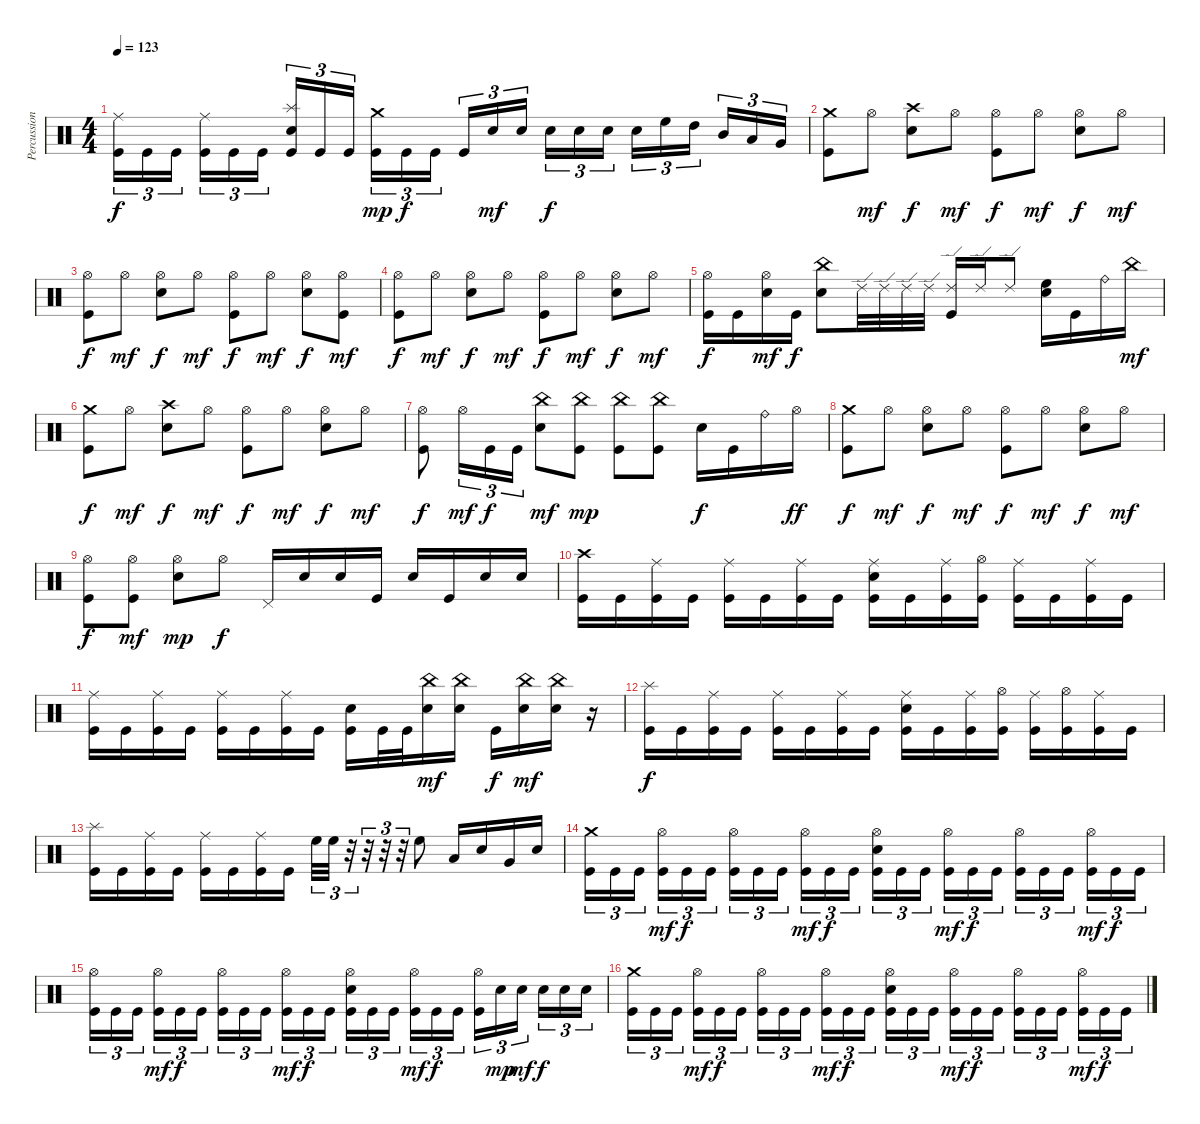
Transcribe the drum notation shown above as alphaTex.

\track ("Percussions" "Percussion") {instrument percussion}
\staff {score}
\articulation defaults
\ts (4 4)
\tempo 123
\clef neutral
\ks c
("Ride (middle)" "Kick (hit)").16{tu (3 2) dy f} "Kick (hit)".16{tu (3 2)} "Kick (hit)".16{tu (3 2)} ("Ride (middle)" "Kick (hit)").16{tu (3 2)} "Kick (hit)".16{tu (3 2)} "Kick (hit)".16{tu (3 2)} ("Splash (hit)" "Electric Snare (hit)" "Kick (hit)").16{tu (3 2)} "Kick (hit)".16{tu (3 2)} "Kick (hit)".16{tu (3 2)} ("Crash medium (hit)" "Kick (hit)").16{tu (3 2) dy mp} "Kick (hit)".16{tu (3 2) dy f} "Kick (hit)".16{tu (3 2)} "Kick (hit)".16{tu (3 2)} "Electric Snare (hit)".16{tu (3 2) dy mf} "Electric Snare (hit)".16{tu (3 2)} "Electric Snare (hit)".16{tu (3 2) dy f} "Electric Snare (hit)".16{tu (3 2)} "Electric Snare (hit)".16{tu (3 2)} "Electric Snare (hit)".16{tu (3 2)} "High Floor Tom (hit)".16{tu (3 2)} "High Tom (hit)".16{tu (3 2)} "Mid Tom (hit)".16{tu (3 2)} "Low Tom (hit)".16{tu (3 2)} "Very Low Tom (hit)".16{tu (3 2)} |
("Crash medium (hit)" "Kick (hit)").8 "Hi-Hat (open)".8{dy mf} ("Crash high (hit)" "Electric Snare (hit)").8{dy f} "Hi-Hat (open)".8{dy mf} ("Hi-Hat (open)" "Kick (hit)").8{dy f} "Hi-Hat (open)".8{dy mf} ("Hi-Hat (open)" "Electric Snare (hit)").8{dy f} "Hi-Hat (open)".8{dy mf} |
("Hi-Hat (open)" "Kick (hit)").8{dy f} "Hi-Hat (open)".8{dy mf} ("Hi-Hat (open)" "Electric Snare (hit)").8{dy f} "Hi-Hat (open)".8{dy mf} ("Hi-Hat (open)" "Kick (hit)").8{dy f} "Hi-Hat (open)".8{dy mf} ("Hi-Hat (open)" "Electric Snare (hit)").8{dy f} ("Hi-Hat (open)" "Kick (hit)").8{dy mf} |
("Hi-Hat (open)" "Kick (hit)").8{dy f} "Hi-Hat (open)".8{dy mf} ("Hi-Hat (open)" "Electric Snare (hit)").8{dy f} "Hi-Hat (open)".8{dy mf} ("Hi-Hat (open)" "Kick (hit)").8{dy f} "Hi-Hat (open)".8{dy mf} ("Hi-Hat (open)" "Electric Snare (hit)").8{dy f} "Hi-Hat (open)".8{dy mf} |
("Hi-Hat (open)" "Kick (hit)").16{dy f} "Kick (hit)".16 ("Hi-Hat (open)" "Snare (hit)").16{dy mf} "Kick (hit)".16{dy f} ("China (hit)" "Electric Snare (hit)").8 "Ride (edge) 2".32 "Ride (edge) 2".32 "Ride (edge) 2".32 "Ride (edge) 2".32 ("Ride (edge) 2" "Kick (hit)").16 "Ride (edge) 2".16 "Ride (edge) 2".8 ("High Floor Tom (hit)" "Electric Snare (hit)").16 "Kick (hit)".16 "Ride (bell)".16 "China (hit)".16{dy mf} |
("Crash medium (hit)" "Kick (hit)").8{dy f} "Hi-Hat (open)".8{dy mf} ("Crash high (hit)" "Electric Snare (hit)").8{dy f} "Hi-Hat (open)".8{dy mf} ("Hi-Hat (open)" "Kick (hit)").8{dy f} "Hi-Hat (open)".8{dy mf} ("Hi-Hat (open)" "Electric Snare (hit)").8{dy f} "Hi-Hat (open)".8{dy mf} |
("Hi-Hat (open)" "Kick (hit)").8{dy f} "Hi-Hat (open)".16{tu (3 2) dy mf} "Kick (hit)".16{tu (3 2) dy f} "Kick (hit)".16{tu (3 2)} ("China (hit)" "Electric Snare (hit)").8{dy mf} ("China (hit)" "Kick (hit)").8{dy mp} ("China (hit)" "Kick (hit)").8 ("China (hit)" "Kick (hit)").8 "Electric Snare (hit)".16{dy f} "Kick (hit)".16 "Ride (bell)".16 "Hi-Hat (open)".16{dy ff} |
("Crash medium (hit)" "Kick (hit)").8{dy f} "Hi-Hat (open)".8{dy mf} ("Hi-Hat (open)" "Electric Snare (hit)").8{dy f} "Hi-Hat (open)".8{dy mf} ("Hi-Hat (open)" "Kick (hit)").8{dy f} "Hi-Hat (open)".8{dy mf} ("Hi-Hat (open)" "Electric Snare (hit)").8{dy f} "Hi-Hat (open)".8{dy mf} |
("Hi-Hat (open)" "Kick (hit)").8{dy f} ("Hi-Hat (open)" "Kick (hit)").8{dy mf} ("Hi-Hat (open)" "Electric Snare (hit)").8{dy mp} "Hi-Hat (open)".8{dy f} "Pedal Hi-Hat (hit)".16 "Electric Snare (hit)".16 "Electric Snare (hit)".16 "Kick (hit)".16 "Electric Snare (hit)".16 "Kick (hit)".16 "Electric Snare (hit)".16 "Electric Snare (hit)".16 |
("Kick (hit)" "Crash high (hit)").16 "Kick (hit)".16 ("Ride (middle)" "Kick (hit)").16 "Kick (hit)".16 ("Ride (middle)" "Kick (hit)").16 "Kick (hit)".16 ("Ride (middle)" "Kick (hit)").16 "Kick (hit)".16 ("Ride (middle)" "Electric Snare (hit)" "Kick (hit)").16 "Kick (hit)".16 ("Ride (middle)" "Kick (hit)").16 ("Hi-Hat (open)" "Kick (hit)").16 ("Ride (middle)" "Kick (hit)").16 "Kick (hit)".16 ("Ride (middle)" "Kick (hit)").16 "Kick (hit)".16 |
("Kick (hit)" "Ride (middle)").16 "Kick (hit)".16 ("Ride (middle)" "Kick (hit)").16 "Kick (hit)".16 ("Ride (middle)" "Kick (hit)").16 "Kick (hit)".16 ("Ride (middle)" "Kick (hit)").16 "Kick (hit)".16 ("Electric Snare (hit)" "Kick (hit)").16 "Kick (hit)".32 "Kick (hit)".32 ("China (hit)" "Electric Snare (hit)").16{dy mf} ("China (hit)" "Electric Snare (hit)").16 "Kick (hit)".16{dy f} ("China (hit)" "Electric Snare (hit)").16{dy mf} ("China (hit)" "Electric Snare (hit)").16 r.16 |
("Kick (hit)" "Splash (hit)").16{dy f} "Kick (hit)".16 ("Ride (middle)" "Kick (hit)").16 "Kick (hit)".16 ("Ride (middle)" "Kick (hit)").16 "Kick (hit)".16 ("Ride (middle)" "Kick (hit)").16 "Kick (hit)".16 ("Ride (middle)" "Electric Snare (hit)" "Kick (hit)").16 "Kick (hit)".16 ("Ride (middle)" "Kick (hit)").16 ("Hi-Hat (open)" "Kick (hit)").16 ("Ride (middle)" "Kick (hit)").16 ("Hi-Hat (open)" "Kick (hit)").16 ("Ride (middle)" "Kick (hit)").16 "Kick (hit)".16 |
("Kick (hit)" "Splash (hit)").16 "Kick (hit)".16 ("Ride (middle)" "Kick (hit)").16 "Kick (hit)".16 ("Ride (middle)" "Kick (hit)").16 "Kick (hit)".16 ("Ride (middle)" "Kick (hit)").16 "Kick (hit)".16 "High Floor Tom (hit)".32{tu (3 2)} "High Floor Tom (hit)".32{tu (3 2)} r.32{tu (3 2)} r.32{tu (3 2)} r.32{tu (3 2)} r.32{tu (3 2)} "High Floor Tom (hit)".8 "Low Tom (hit)".16 "Snare (hit)".16 "Very Low Tom (hit)".16 "Snare (hit)".16 |
("Crash medium (hit)" "Kick (hit)").16{tu (3 2)} "Kick (hit)".16{tu (3 2)} "Kick (hit)".16{tu (3 2)} ("Hi-Hat (open)" "Kick (hit)").16{tu (3 2) dy mf} "Kick (hit)".16{tu (3 2) dy f} "Kick (hit)".16{tu (3 2)} ("Hi-Hat (open)" "Kick (hit)").16{tu (3 2)} "Kick (hit)".16{tu (3 2)} "Kick (hit)".16{tu (3 2)} ("Hi-Hat (open)" "Kick (hit)").16{tu (3 2) dy mf} "Kick (hit)".16{tu (3 2) dy f} "Kick (hit)".16{tu (3 2)} ("Hi-Hat (open)" "Electric Snare (hit)" "Kick (hit)").16{tu (3 2)} "Kick (hit)".16{tu (3 2)} "Kick (hit)".16{tu (3 2)} ("Hi-Hat (open)" "Kick (hit)").16{tu (3 2) dy mf} "Kick (hit)".16{tu (3 2) dy f} "Kick (hit)".16{tu (3 2)} ("Hi-Hat (open)" "Kick (hit)").16{tu (3 2)} "Kick (hit)".16{tu (3 2)} "Kick (hit)".16{tu (3 2)} ("Hi-Hat (open)" "Kick (hit)").16{tu (3 2) dy mf} "Kick (hit)".16{tu (3 2) dy f} "Kick (hit)".16{tu (3 2)} |
("Hi-Hat (open)" "Kick (hit)").16{tu (3 2)} "Kick (hit)".16{tu (3 2)} "Kick (hit)".16{tu (3 2)} ("Hi-Hat (open)" "Kick (hit)").16{tu (3 2) dy mf} "Kick (hit)".16{tu (3 2) dy f} "Kick (hit)".16{tu (3 2)} ("Hi-Hat (open)" "Kick (hit)").16{tu (3 2)} "Kick (hit)".16{tu (3 2)} "Kick (hit)".16{tu (3 2)} ("Hi-Hat (open)" "Kick (hit)").16{tu (3 2) dy mf} "Kick (hit)".16{tu (3 2) dy f} "Kick (hit)".16{tu (3 2)} ("Hi-Hat (open)" "Electric Snare (hit)" "Kick (hit)").16{tu (3 2)} "Kick (hit)".16{tu (3 2)} "Kick (hit)".16{tu (3 2)} ("Hi-Hat (open)" "Kick (hit)").16{tu (3 2) dy mf} "Kick (hit)".16{tu (3 2) dy f} "Kick (hit)".16{tu (3 2)} ("Hi-Hat (open)" "Kick (hit)").16{tu (3 2)} "Electric Snare (hit)".16{tu (3 2) dy mp} "Electric Snare (hit)".16{tu (3 2) dy mf} "Electric Snare (hit)".16{tu (3 2) dy f} "Electric Snare (hit)".16{tu (3 2)} "Electric Snare (hit)".16{tu (3 2)} |
("Crash medium (hit)" "Kick (hit)").16{tu (3 2)} "Kick (hit)".16{tu (3 2)} "Kick (hit)".16{tu (3 2)} ("Hi-Hat (open)" "Kick (hit)").16{tu (3 2) dy mf} "Kick (hit)".16{tu (3 2) dy f} "Kick (hit)".16{tu (3 2)} ("Hi-Hat (open)" "Kick (hit)").16{tu (3 2)} "Kick (hit)".16{tu (3 2)} "Kick (hit)".16{tu (3 2)} ("Hi-Hat (open)" "Kick (hit)").16{tu (3 2) dy mf} "Kick (hit)".16{tu (3 2) dy f} "Kick (hit)".16{tu (3 2)} ("Hi-Hat (open)" "Electric Snare (hit)" "Kick (hit)").16{tu (3 2)} "Kick (hit)".16{tu (3 2)} "Kick (hit)".16{tu (3 2)} ("Hi-Hat (open)" "Kick (hit)").16{tu (3 2) dy mf} "Kick (hit)".16{tu (3 2) dy f} "Kick (hit)".16{tu (3 2)} ("Hi-Hat (open)" "Kick (hit)").16{tu (3 2)} "Kick (hit)".16{tu (3 2)} "Kick (hit)".16{tu (3 2)} ("Hi-Hat (open)" "Kick (hit)").16{tu (3 2) dy mf} "Kick (hit)".16{tu (3 2) dy f} "Kick (hit)".16{tu (3 2)}
